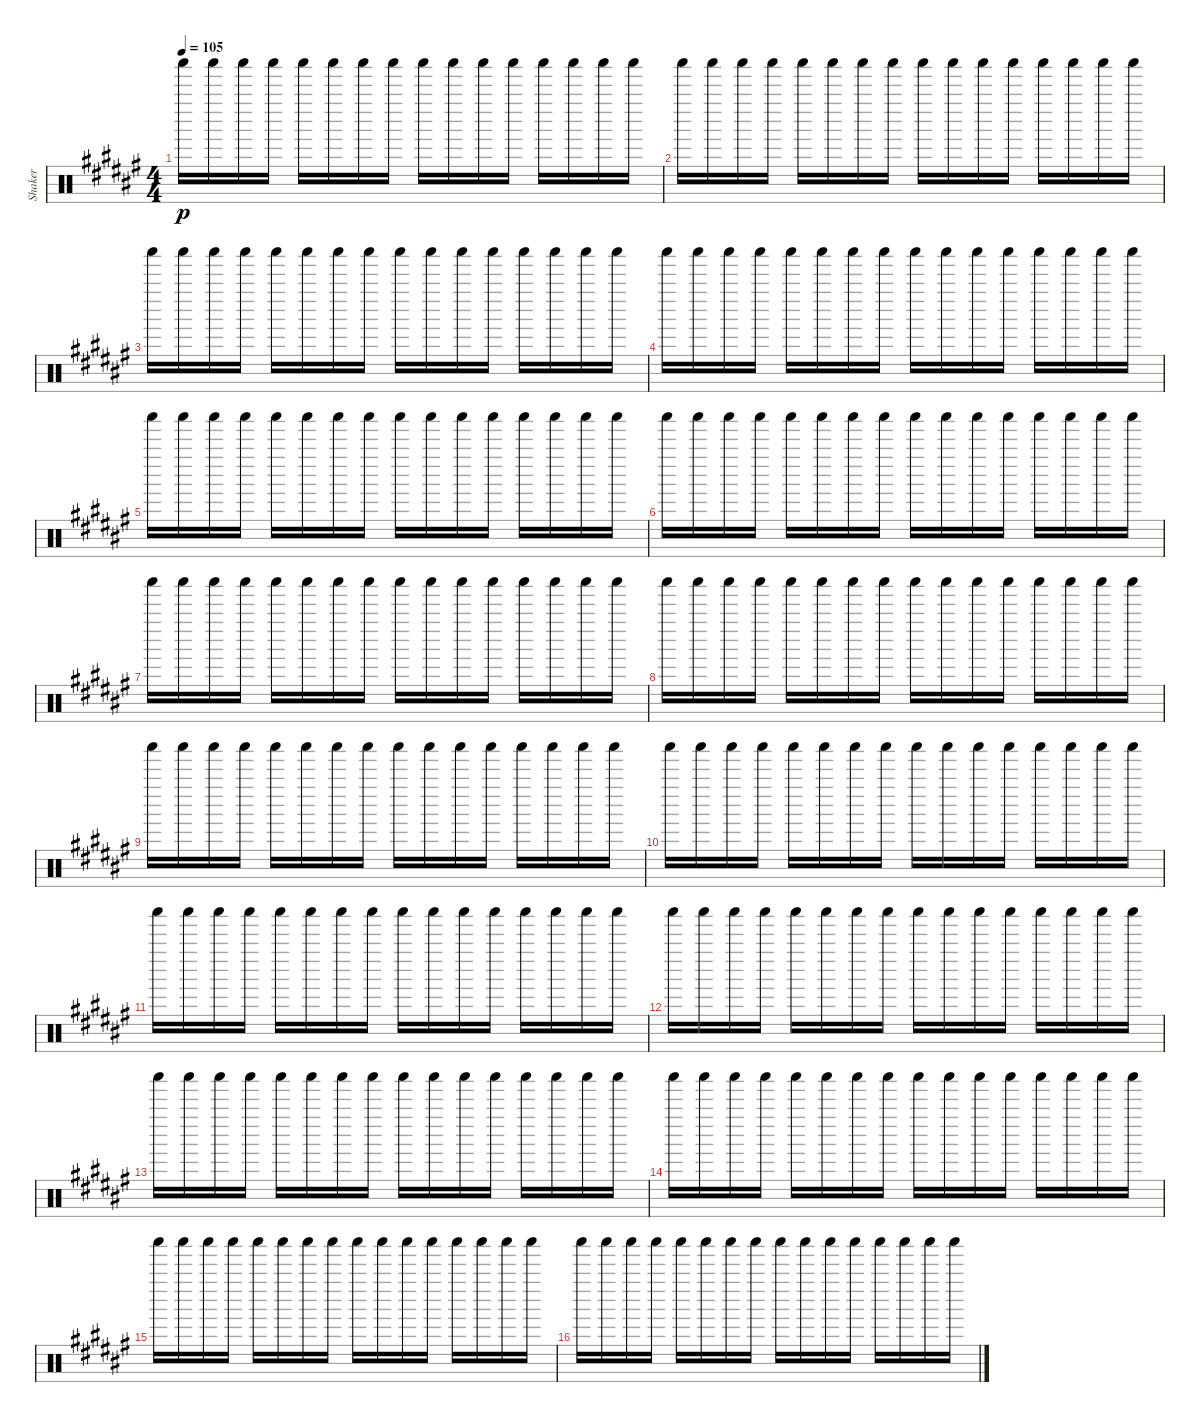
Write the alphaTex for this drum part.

\track ("Shaker" "Shaker") {instrument percussion}
\staff {score}
\articulation defaults
\ts (4 4)
\tempo 105
\clef neutral
\ks d#minor "Shaker (hit)".16{dy p} "Shaker (hit)".16 "Shaker (hit)".16 "Shaker (hit)".16 "Shaker (hit)".16 "Shaker (hit)".16 "Shaker (hit)".16 "Shaker (hit)".16 "Shaker (hit)".16 "Shaker (hit)".16 "Shaker (hit)".16 "Shaker (hit)".16 "Shaker (hit)".16 "Shaker (hit)".16 "Shaker (hit)".16 "Shaker (hit)".16
|
"Shaker (hit)".16 "Shaker (hit)".16 "Shaker (hit)".16 "Shaker (hit)".16 "Shaker (hit)".16 "Shaker (hit)".16 "Shaker (hit)".16 "Shaker (hit)".16 "Shaker (hit)".16 "Shaker (hit)".16 "Shaker (hit)".16 "Shaker (hit)".16 "Shaker (hit)".16 "Shaker (hit)".16 "Shaker (hit)".16 "Shaker (hit)".16 |
"Shaker (hit)".16 "Shaker (hit)".16 "Shaker (hit)".16 "Shaker (hit)".16 "Shaker (hit)".16 "Shaker (hit)".16 "Shaker (hit)".16 "Shaker (hit)".16 "Shaker (hit)".16 "Shaker (hit)".16 "Shaker (hit)".16 "Shaker (hit)".16 "Shaker (hit)".16 "Shaker (hit)".16 "Shaker (hit)".16 "Shaker (hit)".16 |
"Shaker (hit)".16 "Shaker (hit)".16 "Shaker (hit)".16 "Shaker (hit)".16 "Shaker (hit)".16 "Shaker (hit)".16 "Shaker (hit)".16 "Shaker (hit)".16 "Shaker (hit)".16 "Shaker (hit)".16 "Shaker (hit)".16 "Shaker (hit)".16 "Shaker (hit)".16 "Shaker (hit)".16 "Shaker (hit)".16 "Shaker (hit)".16 |
"Shaker (hit)".16 "Shaker (hit)".16 "Shaker (hit)".16 "Shaker (hit)".16 "Shaker (hit)".16 "Shaker (hit)".16 "Shaker (hit)".16 "Shaker (hit)".16 "Shaker (hit)".16 "Shaker (hit)".16 "Shaker (hit)".16 "Shaker (hit)".16 "Shaker (hit)".16 "Shaker (hit)".16 "Shaker (hit)".16 "Shaker (hit)".16 |
"Shaker (hit)".16 "Shaker (hit)".16 "Shaker (hit)".16 "Shaker (hit)".16 "Shaker (hit)".16 "Shaker (hit)".16 "Shaker (hit)".16 "Shaker (hit)".16 "Shaker (hit)".16 "Shaker (hit)".16 "Shaker (hit)".16 "Shaker (hit)".16 "Shaker (hit)".16 "Shaker (hit)".16 "Shaker (hit)".16 "Shaker (hit)".16 |
"Shaker (hit)".16 "Shaker (hit)".16 "Shaker (hit)".16 "Shaker (hit)".16 "Shaker (hit)".16 "Shaker (hit)".16 "Shaker (hit)".16 "Shaker (hit)".16 "Shaker (hit)".16 "Shaker (hit)".16 "Shaker (hit)".16 "Shaker (hit)".16 "Shaker (hit)".16 "Shaker (hit)".16 "Shaker (hit)".16 "Shaker (hit)".16 |
"Shaker (hit)".16 "Shaker (hit)".16 "Shaker (hit)".16 "Shaker (hit)".16 "Shaker (hit)".16 "Shaker (hit)".16 "Shaker (hit)".16 "Shaker (hit)".16 "Shaker (hit)".16 "Shaker (hit)".16 "Shaker (hit)".16 "Shaker (hit)".16 "Shaker (hit)".16 "Shaker (hit)".16 "Shaker (hit)".16 "Shaker (hit)".16 |
"Shaker (hit)".16 "Shaker (hit)".16 "Shaker (hit)".16 "Shaker (hit)".16 "Shaker (hit)".16 "Shaker (hit)".16 "Shaker (hit)".16 "Shaker (hit)".16 "Shaker (hit)".16 "Shaker (hit)".16 "Shaker (hit)".16 "Shaker (hit)".16 "Shaker (hit)".16 "Shaker (hit)".16 "Shaker (hit)".16 "Shaker (hit)".16 |
"Shaker (hit)".16 "Shaker (hit)".16 "Shaker (hit)".16 "Shaker (hit)".16 "Shaker (hit)".16 "Shaker (hit)".16 "Shaker (hit)".16 "Shaker (hit)".16 "Shaker (hit)".16 "Shaker (hit)".16 "Shaker (hit)".16 "Shaker (hit)".16 "Shaker (hit)".16 "Shaker (hit)".16 "Shaker (hit)".16 "Shaker (hit)".16 |
"Shaker (hit)".16 "Shaker (hit)".16 "Shaker (hit)".16 "Shaker (hit)".16 "Shaker (hit)".16 "Shaker (hit)".16 "Shaker (hit)".16 "Shaker (hit)".16 "Shaker (hit)".16 "Shaker (hit)".16 "Shaker (hit)".16 "Shaker (hit)".16 "Shaker (hit)".16 "Shaker (hit)".16 "Shaker (hit)".16 "Shaker (hit)".16 |
"Shaker (hit)".16 "Shaker (hit)".16 "Shaker (hit)".16 "Shaker (hit)".16 "Shaker (hit)".16 "Shaker (hit)".16 "Shaker (hit)".16 "Shaker (hit)".16 "Shaker (hit)".16 "Shaker (hit)".16 "Shaker (hit)".16 "Shaker (hit)".16 "Shaker (hit)".16 "Shaker (hit)".16 "Shaker (hit)".16 "Shaker (hit)".16 |
"Shaker (hit)".16 "Shaker (hit)".16 "Shaker (hit)".16 "Shaker (hit)".16 "Shaker (hit)".16 "Shaker (hit)".16 "Shaker (hit)".16 "Shaker (hit)".16 "Shaker (hit)".16 "Shaker (hit)".16 "Shaker (hit)".16 "Shaker (hit)".16 "Shaker (hit)".16 "Shaker (hit)".16 "Shaker (hit)".16 "Shaker (hit)".16 |
"Shaker (hit)".16 "Shaker (hit)".16 "Shaker (hit)".16 "Shaker (hit)".16 "Shaker (hit)".16 "Shaker (hit)".16 "Shaker (hit)".16 "Shaker (hit)".16 "Shaker (hit)".16 "Shaker (hit)".16 "Shaker (hit)".16 "Shaker (hit)".16 "Shaker (hit)".16 "Shaker (hit)".16 "Shaker (hit)".16 "Shaker (hit)".16 |
"Shaker (hit)".16 "Shaker (hit)".16 "Shaker (hit)".16 "Shaker (hit)".16 "Shaker (hit)".16 "Shaker (hit)".16 "Shaker (hit)".16 "Shaker (hit)".16 "Shaker (hit)".16 "Shaker (hit)".16 "Shaker (hit)".16 "Shaker (hit)".16 "Shaker (hit)".16 "Shaker (hit)".16 "Shaker (hit)".16 "Shaker (hit)".16 |
"Shaker (hit)".16 "Shaker (hit)".16 "Shaker (hit)".16 "Shaker (hit)".16 "Shaker (hit)".16 "Shaker (hit)".16 "Shaker (hit)".16 "Shaker (hit)".16 "Shaker (hit)".16 "Shaker (hit)".16 "Shaker (hit)".16 "Shaker (hit)".16 "Shaker (hit)".16 "Shaker (hit)".16 "Shaker (hit)".16 "Shaker (hit)".16
